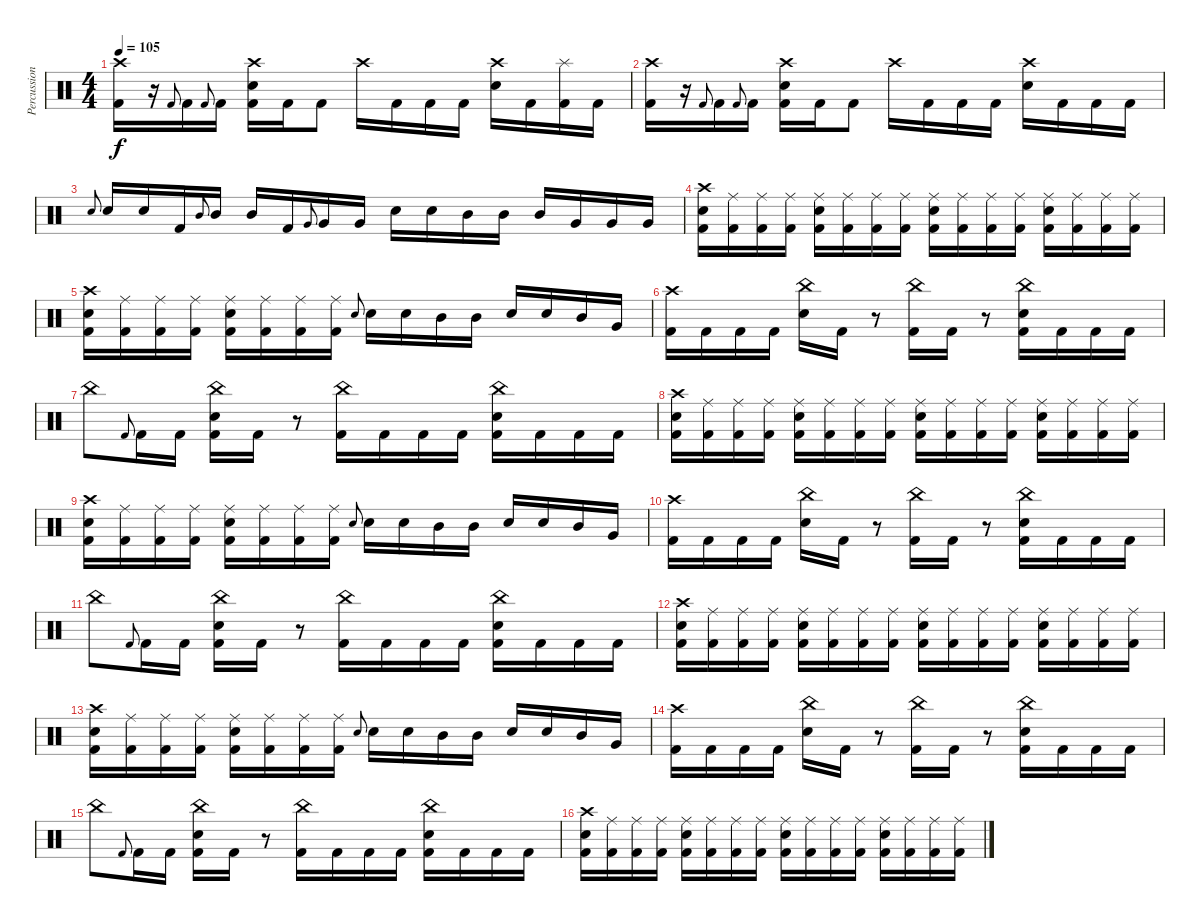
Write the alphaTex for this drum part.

\track ("Percussion" "Percussion") {instrument percussion}
\staff {score}
\articulation defaults
\ts (4 4)
\tempo 105
\clef neutral
\ks c
("Crash high (hit)" "Kick (hit) 2").16{dy f} r.16 "Kick (hit) 2".8{gr onbeat} "Kick (hit) 2".16 "Kick (hit) 2".8{gr onbeat} "Kick (hit) 2".16 ("Crash high (hit)" "Snare (hit) 2" "Kick (hit) 2").16 "Kick (hit) 2".16 "Kick (hit) 2".8 "Crash high (hit)".16 "Kick (hit) 2".16 "Kick (hit) 2".16 "Kick (hit) 2".16 ("Crash high (hit)" "Snare (hit) 2").16 "Kick (hit) 2".16 ("Splash (hit)" "Kick (hit) 2").16 "Kick (hit) 2".16 |
("Crash high (hit)" "Kick (hit) 2").16 r.16 "Kick (hit) 2".8{gr onbeat} "Kick (hit) 2".16 "Kick (hit) 2".8{gr onbeat} "Kick (hit) 2".16 ("Crash high (hit)" "Snare (hit) 2" "Kick (hit) 2").16 "Kick (hit) 2".16 "Kick (hit) 2".8 "Crash high (hit)".16 "Kick (hit) 2".16 "Kick (hit) 2".16 "Kick (hit) 2".16 ("Crash high (hit)" "Snare (hit) 2").16 "Kick (hit) 2".16 "Kick (hit) 2".16 "Kick (hit) 2".16 |
"Snare (hit) 2".8{gr onbeat} "Snare (hit) 2".16 "Snare (hit) 2".16 "Kick (hit) 2".16 "Mid Tom (hit)".8{gr onbeat} "Mid Tom (hit)".16 "Mid Tom (hit)".16 "Kick (hit) 2".16 "Very Low Tom (hit)".8{gr onbeat} "Very Low Tom (hit)".16 "Very Low Tom (hit)".16 "Snare (hit) 2".16 "Snare (hit) 2".16 "Mid Tom (hit)".16 "Mid Tom (hit)".16 "Mid Tom (hit)".16 "Very Low Tom (hit)".16 "Very Low Tom (hit)".16 "Very Low Tom (hit)".16 |
("Crash high (hit)" "Snare (hit) 2" "Kick (hit) 2").16 ("Ride (middle)" "Kick (hit) 2").16 ("Ride (middle)" "Kick (hit) 2").16 ("Ride (middle)" "Kick (hit) 2").16 ("Ride (middle)" "Snare (hit) 2" "Kick (hit) 2").16 ("Ride (middle)" "Kick (hit) 2").16 ("Ride (middle)" "Kick (hit) 2").16 ("Ride (middle)" "Kick (hit) 2").16 ("Ride (middle)" "Snare (hit) 2" "Kick (hit) 2").16 ("Ride (middle)" "Kick (hit) 2").16 ("Ride (middle)" "Kick (hit) 2").16 ("Ride (middle)" "Kick (hit) 2").16 ("Ride (middle)" "Snare (hit) 2" "Kick (hit) 2").16 ("Ride (middle)" "Kick (hit) 2").16 ("Ride (middle)" "Kick (hit) 2").16 ("Ride (middle)" "Kick (hit) 2").16 |
("Crash high (hit)" "Snare (hit) 2" "Kick (hit) 2").16 ("Ride (middle)" "Kick (hit) 2").16 ("Ride (middle)" "Kick (hit) 2").16 ("Ride (middle)" "Kick (hit) 2").16 ("Ride (middle)" "Snare (hit) 2" "Kick (hit) 2").16 ("Ride (middle)" "Kick (hit) 2").16 ("Ride (middle)" "Kick (hit) 2").16 ("Ride (middle)" "Kick (hit) 2").16 "Snare (hit) 2".8{gr onbeat} "Snare (hit) 2".16 "Snare (hit) 2".16 "Mid Tom (hit)".16 "Mid Tom (hit)".16 "Snare (hit) 2".16 "Snare (hit) 2".16 "Mid Tom (hit)".16 "Very Low Tom (hit)".16 |
("Crash high (hit)" "Kick (hit) 2").16 "Kick (hit) 2".16 "Kick (hit) 2".16 "Kick (hit) 2".16 ("China (hit)" "Snare (hit) 2").16 "Kick (hit) 2".16 r.8 ("China (hit)" "Kick (hit) 2").16 "Kick (hit) 2".16 r.8 ("China (hit)" "Snare (hit) 2" "Kick (hit) 2").16 "Kick (hit) 2".16 "Kick (hit) 2".16 "Kick (hit) 2".16 |
"China (hit)".8 "Kick (hit) 2".8{gr onbeat} "Kick (hit) 2".16 "Kick (hit) 2".16 ("China (hit)" "Snare (hit) 2" "Kick (hit) 2").16 "Kick (hit) 2".16 r.8 ("China (hit)" "Kick (hit) 2").16 "Kick (hit) 2".16 "Kick (hit) 2".16 "Kick (hit) 2".16 ("China (hit)" "Snare (hit) 2" "Kick (hit) 2").16 "Kick (hit) 2".16 "Kick (hit) 2".16 "Kick (hit) 2".16 |
("Crash high (hit)" "Snare (hit) 2" "Kick (hit) 2").16 ("Ride (middle)" "Kick (hit) 2").16 ("Ride (middle)" "Kick (hit) 2").16 ("Ride (middle)" "Kick (hit) 2").16 ("Ride (middle)" "Snare (hit) 2" "Kick (hit) 2").16 ("Ride (middle)" "Kick (hit) 2").16 ("Ride (middle)" "Kick (hit) 2").16 ("Ride (middle)" "Kick (hit) 2").16 ("Ride (middle)" "Snare (hit) 2" "Kick (hit) 2").16 ("Ride (middle)" "Kick (hit) 2").16 ("Ride (middle)" "Kick (hit) 2").16 ("Ride (middle)" "Kick (hit) 2").16 ("Ride (middle)" "Snare (hit) 2" "Kick (hit) 2").16 ("Ride (middle)" "Kick (hit) 2").16 ("Ride (middle)" "Kick (hit) 2").16 ("Ride (middle)" "Kick (hit) 2").16 |
("Crash high (hit)" "Snare (hit) 2" "Kick (hit) 2").16 ("Ride (middle)" "Kick (hit) 2").16 ("Ride (middle)" "Kick (hit) 2").16 ("Ride (middle)" "Kick (hit) 2").16 ("Ride (middle)" "Snare (hit) 2" "Kick (hit) 2").16 ("Ride (middle)" "Kick (hit) 2").16 ("Ride (middle)" "Kick (hit) 2").16 ("Ride (middle)" "Kick (hit) 2").16 "Snare (hit) 2".8{gr onbeat} "Snare (hit) 2".16 "Snare (hit) 2".16 "Mid Tom (hit)".16 "Mid Tom (hit)".16 "Snare (hit) 2".16 "Snare (hit) 2".16 "Mid Tom (hit)".16 "Very Low Tom (hit)".16 |
("Crash high (hit)" "Kick (hit) 2").16 "Kick (hit) 2".16 "Kick (hit) 2".16 "Kick (hit) 2".16 ("China (hit)" "Snare (hit) 2").16 "Kick (hit) 2".16 r.8 ("China (hit)" "Kick (hit) 2").16 "Kick (hit) 2".16 r.8 ("China (hit)" "Snare (hit) 2" "Kick (hit) 2").16 "Kick (hit) 2".16 "Kick (hit) 2".16 "Kick (hit) 2".16 |
"China (hit)".8 "Kick (hit) 2".8{gr onbeat} "Kick (hit) 2".16 "Kick (hit) 2".16 ("China (hit)" "Snare (hit) 2" "Kick (hit) 2").16 "Kick (hit) 2".16 r.8 ("China (hit)" "Kick (hit) 2").16 "Kick (hit) 2".16 "Kick (hit) 2".16 "Kick (hit) 2".16 ("China (hit)" "Snare (hit) 2" "Kick (hit) 2").16 "Kick (hit) 2".16 "Kick (hit) 2".16 "Kick (hit) 2".16 |
("Crash high (hit)" "Snare (hit) 2" "Kick (hit) 2").16 ("Ride (middle)" "Kick (hit) 2").16 ("Ride (middle)" "Kick (hit) 2").16 ("Ride (middle)" "Kick (hit) 2").16 ("Ride (middle)" "Snare (hit) 2" "Kick (hit) 2").16 ("Ride (middle)" "Kick (hit) 2").16 ("Ride (middle)" "Kick (hit) 2").16 ("Ride (middle)" "Kick (hit) 2").16 ("Ride (middle)" "Snare (hit) 2" "Kick (hit) 2").16 ("Ride (middle)" "Kick (hit) 2").16 ("Ride (middle)" "Kick (hit) 2").16 ("Ride (middle)" "Kick (hit) 2").16 ("Ride (middle)" "Snare (hit) 2" "Kick (hit) 2").16 ("Ride (middle)" "Kick (hit) 2").16 ("Ride (middle)" "Kick (hit) 2").16 ("Ride (middle)" "Kick (hit) 2").16 |
("Crash high (hit)" "Snare (hit) 2" "Kick (hit) 2").16 ("Ride (middle)" "Kick (hit) 2").16 ("Ride (middle)" "Kick (hit) 2").16 ("Ride (middle)" "Kick (hit) 2").16 ("Ride (middle)" "Snare (hit) 2" "Kick (hit) 2").16 ("Ride (middle)" "Kick (hit) 2").16 ("Ride (middle)" "Kick (hit) 2").16 ("Ride (middle)" "Kick (hit) 2").16 "Snare (hit) 2".8{gr onbeat} "Snare (hit) 2".16 "Snare (hit) 2".16 "Mid Tom (hit)".16 "Mid Tom (hit)".16 "Snare (hit) 2".16 "Snare (hit) 2".16 "Mid Tom (hit)".16 "Very Low Tom (hit)".16 |
("Crash high (hit)" "Kick (hit) 2").16 "Kick (hit) 2".16 "Kick (hit) 2".16 "Kick (hit) 2".16 ("China (hit)" "Snare (hit) 2").16 "Kick (hit) 2".16 r.8 ("China (hit)" "Kick (hit) 2").16 "Kick (hit) 2".16 r.8 ("China (hit)" "Snare (hit) 2" "Kick (hit) 2").16 "Kick (hit) 2".16 "Kick (hit) 2".16 "Kick (hit) 2".16 |
"China (hit)".8 "Kick (hit) 2".8{gr onbeat} "Kick (hit) 2".16 "Kick (hit) 2".16 ("China (hit)" "Snare (hit) 2" "Kick (hit) 2").16 "Kick (hit) 2".16 r.8 ("China (hit)" "Kick (hit) 2").16 "Kick (hit) 2".16 "Kick (hit) 2".16 "Kick (hit) 2".16 ("China (hit)" "Snare (hit) 2" "Kick (hit) 2").16 "Kick (hit) 2".16 "Kick (hit) 2".16 "Kick (hit) 2".16 |
("Crash high (hit)" "Snare (hit) 2" "Kick (hit) 2").16 ("Ride (middle)" "Kick (hit) 2").16 ("Ride (middle)" "Kick (hit) 2").16 ("Ride (middle)" "Kick (hit) 2").16 ("Ride (middle)" "Snare (hit) 2" "Kick (hit) 2").16 ("Ride (middle)" "Kick (hit) 2").16 ("Ride (middle)" "Kick (hit) 2").16 ("Ride (middle)" "Kick (hit) 2").16 ("Ride (middle)" "Snare (hit) 2" "Kick (hit) 2").16 ("Ride (middle)" "Kick (hit) 2").16 ("Ride (middle)" "Kick (hit) 2").16 ("Ride (middle)" "Kick (hit) 2").16 ("Ride (middle)" "Snare (hit) 2" "Kick (hit) 2").16 ("Ride (middle)" "Kick (hit) 2").16 ("Ride (middle)" "Kick (hit) 2").16 ("Ride (middle)" "Kick (hit) 2").16
